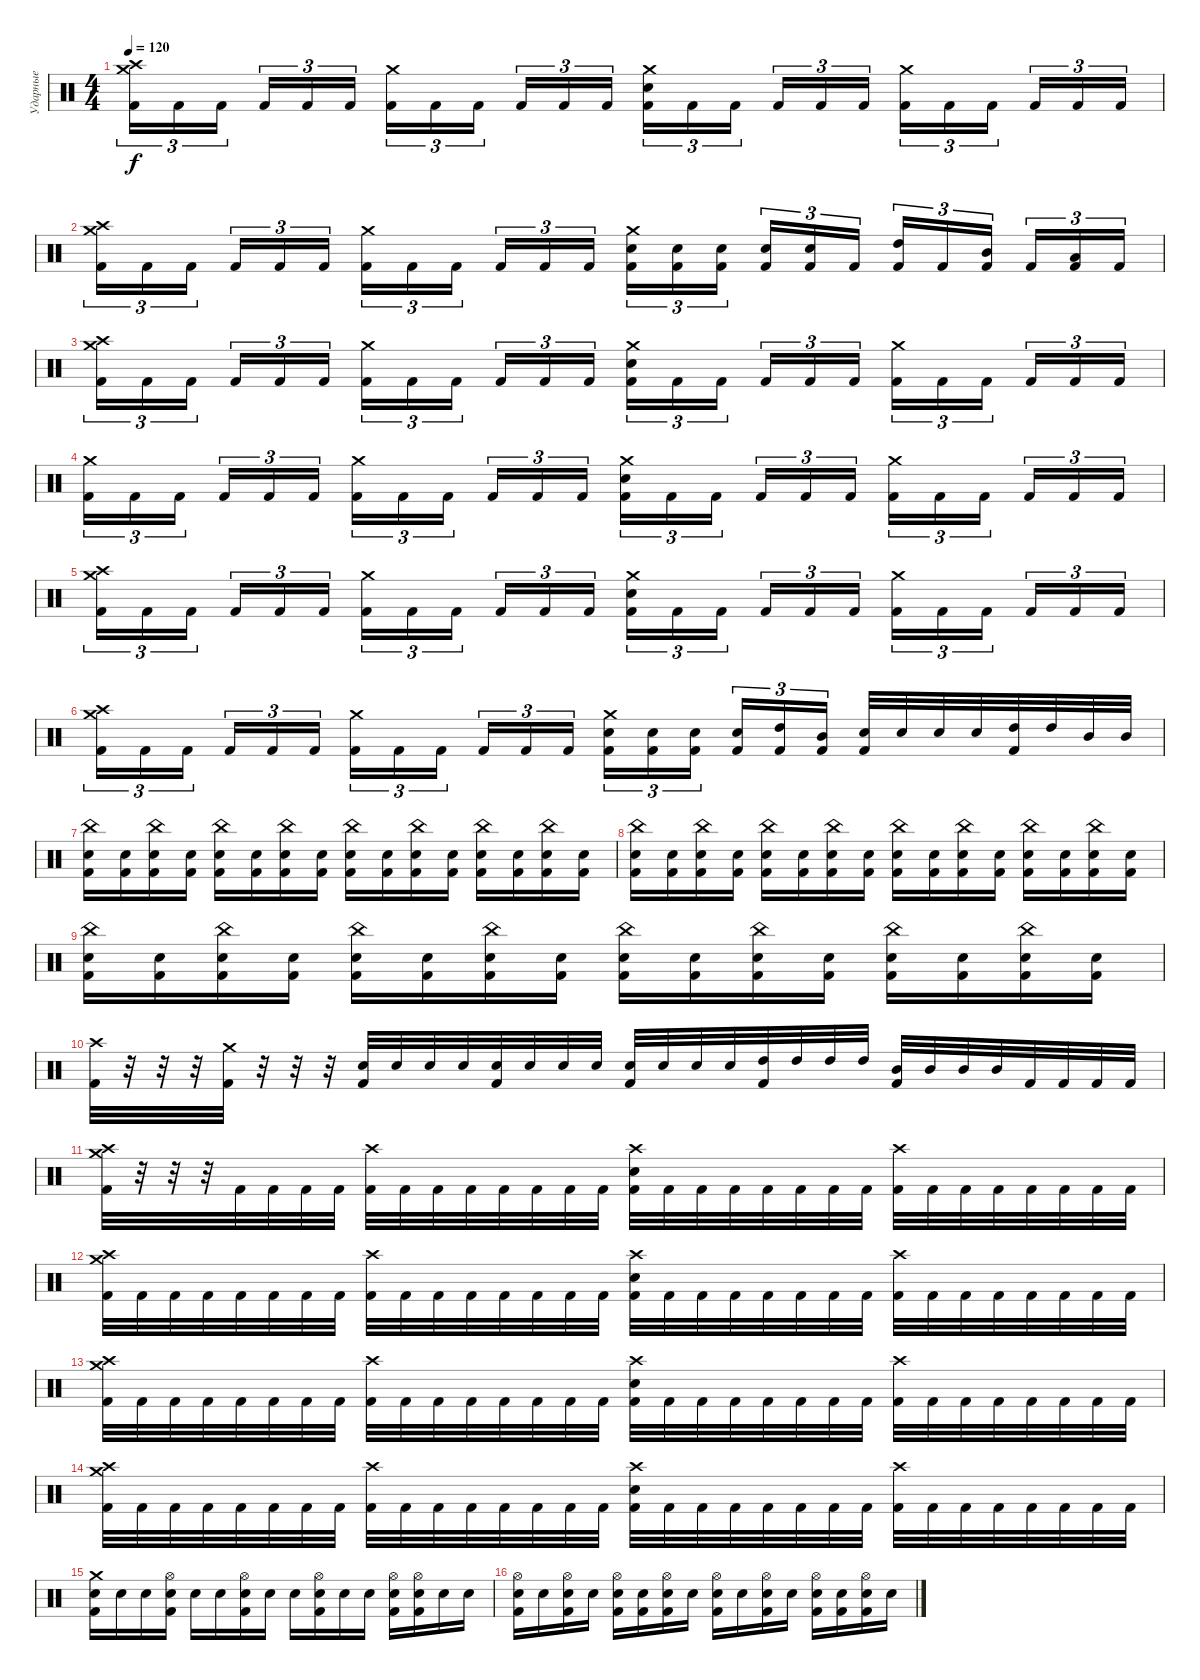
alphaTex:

\track ("Ударные" "Ударные") {instrument percussion}
\staff {score}
\articulation defaults
\ts (4 4)
\tempo 120
\clef neutral
\ks c
("Crash high (hit)" "Crash medium (hit)" "Kick (hit) 2").16{tu (3 2) dy f} "Kick (hit) 2".16{tu (3 2)} "Kick (hit) 2".16{tu (3 2) beam splitsecondary} "Kick (hit) 2".16{tu (3 2)} "Kick (hit) 2".16{tu (3 2)} "Kick (hit) 2".16{tu (3 2)} ("Crash medium (hit)" "Kick (hit) 2").16{tu (3 2)} "Kick (hit) 2".16{tu (3 2)} "Kick (hit) 2".16{tu (3 2) beam splitsecondary} "Kick (hit) 2".16{tu (3 2)} "Kick (hit) 2".16{tu (3 2)} "Kick (hit) 2".16{tu (3 2)} ("Electric Snare (hit)" "Crash medium (hit)" "Kick (hit) 2").16{tu (3 2)} "Kick (hit) 2".16{tu (3 2)} "Kick (hit) 2".16{tu (3 2) beam splitsecondary} "Kick (hit) 2".16{tu (3 2)} "Kick (hit) 2".16{tu (3 2)} "Kick (hit) 2".16{tu (3 2)} ("Crash medium (hit)" "Kick (hit) 2").16{tu (3 2)} "Kick (hit) 2".16{tu (3 2)} "Kick (hit) 2".16{tu (3 2) beam splitsecondary} "Kick (hit) 2".16{tu (3 2)} "Kick (hit) 2".16{tu (3 2)} "Kick (hit) 2".16{tu (3 2)} |
("Crash high (hit)" "Crash medium (hit)" "Kick (hit) 2").16{tu (3 2)} "Kick (hit) 2".16{tu (3 2)} "Kick (hit) 2".16{tu (3 2) beam splitsecondary} "Kick (hit) 2".16{tu (3 2)} "Kick (hit) 2".16{tu (3 2)} "Kick (hit) 2".16{tu (3 2)} ("Crash medium (hit)" "Kick (hit) 2").16{tu (3 2)} "Kick (hit) 2".16{tu (3 2)} "Kick (hit) 2".16{tu (3 2) beam splitsecondary} "Kick (hit) 2".16{tu (3 2)} "Kick (hit) 2".16{tu (3 2)} "Kick (hit) 2".16{tu (3 2)} ("Electric Snare (hit)" "Crash medium (hit)" "Kick (hit) 2").16{tu (3 2)} ("Electric Snare (hit)" "Kick (hit) 2").16{tu (3 2)} ("Electric Snare (hit)" "Kick (hit) 2").16{tu (3 2) beam splitsecondary} ("Electric Snare (hit)" "Kick (hit) 2").16{tu (3 2)} ("Electric Snare (hit)" "Kick (hit) 2").16{tu (3 2)} "Kick (hit) 2".16{tu (3 2)} ("High Tom (hit)" "Kick (hit) 2").16{tu (3 2)} "Kick (hit) 2".16{tu (3 2)} ("Mid Tom (hit)" "Kick (hit) 2").16{tu (3 2) beam splitsecondary} "Kick (hit) 2".16{tu (3 2)} ("Low Tom (hit)" "Kick (hit) 2").16{tu (3 2)} "Kick (hit) 2".16{tu (3 2)} |
("Crash high (hit)" "Crash medium (hit)" "Kick (hit) 2").16{tu (3 2)} "Kick (hit) 2".16{tu (3 2)} "Kick (hit) 2".16{tu (3 2) beam splitsecondary} "Kick (hit) 2".16{tu (3 2)} "Kick (hit) 2".16{tu (3 2)} "Kick (hit) 2".16{tu (3 2)} ("Crash medium (hit)" "Kick (hit) 2").16{tu (3 2)} "Kick (hit) 2".16{tu (3 2)} "Kick (hit) 2".16{tu (3 2) beam splitsecondary} "Kick (hit) 2".16{tu (3 2)} "Kick (hit) 2".16{tu (3 2)} "Kick (hit) 2".16{tu (3 2)} ("Electric Snare (hit)" "Crash medium (hit)" "Kick (hit) 2").16{tu (3 2)} "Kick (hit) 2".16{tu (3 2)} "Kick (hit) 2".16{tu (3 2) beam splitsecondary} "Kick (hit) 2".16{tu (3 2)} "Kick (hit) 2".16{tu (3 2)} "Kick (hit) 2".16{tu (3 2)} ("Crash medium (hit)" "Kick (hit) 2").16{tu (3 2)} "Kick (hit) 2".16{tu (3 2)} "Kick (hit) 2".16{tu (3 2) beam splitsecondary} "Kick (hit) 2".16{tu (3 2)} "Kick (hit) 2".16{tu (3 2)} "Kick (hit) 2".16{tu (3 2)} |
("Crash medium (hit)" "Kick (hit) 2").16{tu (3 2)} "Kick (hit) 2".16{tu (3 2)} "Kick (hit) 2".16{tu (3 2) beam splitsecondary} "Kick (hit) 2".16{tu (3 2)} "Kick (hit) 2".16{tu (3 2)} "Kick (hit) 2".16{tu (3 2)} ("Crash medium (hit)" "Kick (hit) 2").16{tu (3 2)} "Kick (hit) 2".16{tu (3 2)} "Kick (hit) 2".16{tu (3 2) beam splitsecondary} "Kick (hit) 2".16{tu (3 2)} "Kick (hit) 2".16{tu (3 2)} "Kick (hit) 2".16{tu (3 2)} ("Electric Snare (hit)" "Crash medium (hit)" "Kick (hit) 2").16{tu (3 2)} "Kick (hit) 2".16{tu (3 2)} "Kick (hit) 2".16{tu (3 2) beam splitsecondary} "Kick (hit) 2".16{tu (3 2)} "Kick (hit) 2".16{tu (3 2)} "Kick (hit) 2".16{tu (3 2)} ("Crash medium (hit)" "Kick (hit) 2").16{tu (3 2)} "Kick (hit) 2".16{tu (3 2)} "Kick (hit) 2".16{tu (3 2) beam splitsecondary} "Kick (hit) 2".16{tu (3 2)} "Kick (hit) 2".16{tu (3 2)} "Kick (hit) 2".16{tu (3 2)} |
("Crash high (hit)" "Crash medium (hit)" "Kick (hit) 2").16{tu (3 2)} "Kick (hit) 2".16{tu (3 2)} "Kick (hit) 2".16{tu (3 2) beam splitsecondary} "Kick (hit) 2".16{tu (3 2)} "Kick (hit) 2".16{tu (3 2)} "Kick (hit) 2".16{tu (3 2)} ("Crash medium (hit)" "Kick (hit) 2").16{tu (3 2)} "Kick (hit) 2".16{tu (3 2)} "Kick (hit) 2".16{tu (3 2) beam splitsecondary} "Kick (hit) 2".16{tu (3 2)} "Kick (hit) 2".16{tu (3 2)} "Kick (hit) 2".16{tu (3 2)} ("Electric Snare (hit)" "Crash medium (hit)" "Kick (hit) 2").16{tu (3 2)} "Kick (hit) 2".16{tu (3 2)} "Kick (hit) 2".16{tu (3 2) beam splitsecondary} "Kick (hit) 2".16{tu (3 2)} "Kick (hit) 2".16{tu (3 2)} "Kick (hit) 2".16{tu (3 2)} ("Crash medium (hit)" "Kick (hit) 2").16{tu (3 2)} "Kick (hit) 2".16{tu (3 2)} "Kick (hit) 2".16{tu (3 2) beam splitsecondary} "Kick (hit) 2".16{tu (3 2)} "Kick (hit) 2".16{tu (3 2)} "Kick (hit) 2".16{tu (3 2)} |
("Crash high (hit)" "Crash medium (hit)" "Kick (hit) 2").16{tu (3 2)} "Kick (hit) 2".16{tu (3 2)} "Kick (hit) 2".16{tu (3 2) beam splitsecondary} "Kick (hit) 2".16{tu (3 2)} "Kick (hit) 2".16{tu (3 2)} "Kick (hit) 2".16{tu (3 2)} ("Crash medium (hit)" "Kick (hit) 2").16{tu (3 2)} "Kick (hit) 2".16{tu (3 2)} "Kick (hit) 2".16{tu (3 2) beam splitsecondary} "Kick (hit) 2".16{tu (3 2)} "Kick (hit) 2".16{tu (3 2)} "Kick (hit) 2".16{tu (3 2)} ("Electric Snare (hit)" "Crash medium (hit)" "Kick (hit) 2").16{tu (3 2)} ("Electric Snare (hit)" "Kick (hit) 2").16{tu (3 2)} ("Electric Snare (hit)" "Kick (hit) 2").16{tu (3 2) beam splitsecondary} ("Electric Snare (hit)" "Kick (hit) 2").16{tu (3 2)} ("High Tom (hit)" "Kick (hit) 2").16{tu (3 2)} ("Mid Tom (hit)" "Kick (hit) 2").16{tu (3 2)} ("Electric Snare (hit)" "Kick (hit) 2").32 "Electric Snare (hit)".32 "Electric Snare (hit)".32 "Electric Snare (hit)".32 ("High Tom (hit)" "Kick (hit) 2").32 "High Tom (hit)".32 "Mid Tom (hit)".32 "Mid Tom (hit)".32 |
("China (hit)" "Electric Snare (hit)" "Kick (hit) 2").16 ("Electric Snare (hit)" "Kick (hit) 2").16 ("China (hit)" "Electric Snare (hit)" "Kick (hit) 2").16 ("Electric Snare (hit)" "Kick (hit) 2").16 ("China (hit)" "Electric Snare (hit)" "Kick (hit) 2").16 ("Electric Snare (hit)" "Kick (hit) 2").16 ("China (hit)" "Electric Snare (hit)" "Kick (hit) 2").16 ("Electric Snare (hit)" "Kick (hit) 2").16 ("China (hit)" "Electric Snare (hit)" "Kick (hit) 2").16 ("Electric Snare (hit)" "Kick (hit) 2").16 ("China (hit)" "Electric Snare (hit)" "Kick (hit) 2").16 ("Electric Snare (hit)" "Kick (hit) 2").16 ("China (hit)" "Electric Snare (hit)" "Kick (hit) 2").16 ("Electric Snare (hit)" "Kick (hit) 2").16 ("China (hit)" "Electric Snare (hit)" "Kick (hit) 2").16 ("Electric Snare (hit)" "Kick (hit) 2").16 |
("China (hit)" "Electric Snare (hit)" "Kick (hit) 2").16 ("Electric Snare (hit)" "Kick (hit) 2").16 ("China (hit)" "Electric Snare (hit)" "Kick (hit) 2").16 ("Electric Snare (hit)" "Kick (hit) 2").16 ("China (hit)" "Electric Snare (hit)" "Kick (hit) 2").16 ("Electric Snare (hit)" "Kick (hit) 2").16 ("China (hit)" "Electric Snare (hit)" "Kick (hit) 2").16 ("Electric Snare (hit)" "Kick (hit) 2").16 ("China (hit)" "Electric Snare (hit)" "Kick (hit) 2").16 ("Electric Snare (hit)" "Kick (hit) 2").16 ("China (hit)" "Electric Snare (hit)" "Kick (hit) 2").16 ("Electric Snare (hit)" "Kick (hit) 2").16 ("China (hit)" "Electric Snare (hit)" "Kick (hit) 2").16 ("Electric Snare (hit)" "Kick (hit) 2").16 ("China (hit)" "Electric Snare (hit)" "Kick (hit) 2").16 ("Electric Snare (hit)" "Kick (hit) 2").16 |
("China (hit)" "Electric Snare (hit)" "Kick (hit) 2").16 ("Electric Snare (hit)" "Kick (hit) 2").16 ("China (hit)" "Electric Snare (hit)" "Kick (hit) 2").16 ("Electric Snare (hit)" "Kick (hit) 2").16 ("China (hit)" "Electric Snare (hit)" "Kick (hit) 2").16 ("Electric Snare (hit)" "Kick (hit) 2").16 ("China (hit)" "Electric Snare (hit)" "Kick (hit) 2").16 ("Electric Snare (hit)" "Kick (hit) 2").16 ("China (hit)" "Electric Snare (hit)" "Kick (hit) 2").16 ("Electric Snare (hit)" "Kick (hit) 2").16 ("China (hit)" "Electric Snare (hit)" "Kick (hit) 2").16 ("Electric Snare (hit)" "Kick (hit) 2").16 ("China (hit)" "Electric Snare (hit)" "Kick (hit) 2").16 ("Electric Snare (hit)" "Kick (hit) 2").16 ("China (hit)" "Electric Snare (hit)" "Kick (hit) 2").16 ("Electric Snare (hit)" "Kick (hit) 2").16 |
("Crash high (hit)" "Kick (hit) 2").32 r.32 r.32 r.32 ("Crash medium (hit)" "Kick (hit) 2").32 r.32 r.32 r.32 ("Electric Snare (hit)" "Kick (hit) 2").32 "Electric Snare (hit)".32 "Electric Snare (hit)".32 "Electric Snare (hit)".32 ("Electric Snare (hit)" "Kick (hit) 2").32 "Electric Snare (hit)".32 "Electric Snare (hit)".32 "Electric Snare (hit)".32 ("Electric Snare (hit)" "Kick (hit) 2").32 "Electric Snare (hit)".32 "Electric Snare (hit)".32 "Electric Snare (hit)".32 ("High Tom (hit)" "Kick (hit) 2").32 "High Tom (hit)".32 "High Tom (hit)".32 "High Tom (hit)".32 ("Mid Tom (hit)" "Kick (hit) 2").32 "Mid Tom (hit)".32 "Mid Tom (hit)".32 "Mid Tom (hit)".32 "Kick (hit) 2".32 "Kick (hit) 2".32 "Kick (hit) 2".32 "Kick (hit) 2".32 |
("Crash high (hit)" "Crash medium (hit)" "Kick (hit) 2").32 r.32 r.32 r.32 "Kick (hit) 2".32 "Kick (hit) 2".32 "Kick (hit) 2".32 "Kick (hit) 2".32 ("Crash high (hit)" "Kick (hit) 2").32 "Kick (hit) 2".32 "Kick (hit) 2".32 "Kick (hit) 2".32 "Kick (hit) 2".32 "Kick (hit) 2".32 "Kick (hit) 2".32 "Kick (hit) 2".32 ("Crash high (hit)" "Electric Snare (hit)" "Kick (hit) 2").32 "Kick (hit) 2".32 "Kick (hit) 2".32 "Kick (hit) 2".32 "Kick (hit) 2".32 "Kick (hit) 2".32 "Kick (hit) 2".32 "Kick (hit) 2".32 ("Crash high (hit)" "Kick (hit) 2").32 "Kick (hit) 2".32 "Kick (hit) 2".32 "Kick (hit) 2".32 "Kick (hit) 2".32 "Kick (hit) 2".32 "Kick (hit) 2".32 "Kick (hit) 2".32 |
("Crash high (hit)" "Crash medium (hit)" "Kick (hit) 2").32 "Kick (hit) 2".32 "Kick (hit) 2".32 "Kick (hit) 2".32 "Kick (hit) 2".32 "Kick (hit) 2".32 "Kick (hit) 2".32 "Kick (hit) 2".32 ("Crash high (hit)" "Kick (hit) 2").32 "Kick (hit) 2".32 "Kick (hit) 2".32 "Kick (hit) 2".32 "Kick (hit) 2".32 "Kick (hit) 2".32 "Kick (hit) 2".32 "Kick (hit) 2".32 ("Crash high (hit)" "Electric Snare (hit)" "Kick (hit) 2").32 "Kick (hit) 2".32 "Kick (hit) 2".32 "Kick (hit) 2".32 "Kick (hit) 2".32 "Kick (hit) 2".32 "Kick (hit) 2".32 "Kick (hit) 2".32 ("Crash high (hit)" "Kick (hit) 2").32 "Kick (hit) 2".32 "Kick (hit) 2".32 "Kick (hit) 2".32 "Kick (hit) 2".32 "Kick (hit) 2".32 "Kick (hit) 2".32 "Kick (hit) 2".32 |
("Crash high (hit)" "Crash medium (hit)" "Kick (hit) 2").32 "Kick (hit) 2".32 "Kick (hit) 2".32 "Kick (hit) 2".32 "Kick (hit) 2".32 "Kick (hit) 2".32 "Kick (hit) 2".32 "Kick (hit) 2".32 ("Crash high (hit)" "Kick (hit) 2").32 "Kick (hit) 2".32 "Kick (hit) 2".32 "Kick (hit) 2".32 "Kick (hit) 2".32 "Kick (hit) 2".32 "Kick (hit) 2".32 "Kick (hit) 2".32 ("Crash high (hit)" "Electric Snare (hit)" "Kick (hit) 2").32 "Kick (hit) 2".32 "Kick (hit) 2".32 "Kick (hit) 2".32 "Kick (hit) 2".32 "Kick (hit) 2".32 "Kick (hit) 2".32 "Kick (hit) 2".32 ("Crash high (hit)" "Kick (hit) 2").32 "Kick (hit) 2".32 "Kick (hit) 2".32 "Kick (hit) 2".32 "Kick (hit) 2".32 "Kick (hit) 2".32 "Kick (hit) 2".32 "Kick (hit) 2".32 |
("Crash high (hit)" "Crash medium (hit)" "Kick (hit) 2").32 "Kick (hit) 2".32 "Kick (hit) 2".32 "Kick (hit) 2".32 "Kick (hit) 2".32 "Kick (hit) 2".32 "Kick (hit) 2".32 "Kick (hit) 2".32 ("Crash high (hit)" "Kick (hit) 2").32 "Kick (hit) 2".32 "Kick (hit) 2".32 "Kick (hit) 2".32 "Kick (hit) 2".32 "Kick (hit) 2".32 "Kick (hit) 2".32 "Kick (hit) 2".32 ("Crash high (hit)" "Electric Snare (hit)" "Kick (hit) 2").32 "Kick (hit) 2".32 "Kick (hit) 2".32 "Kick (hit) 2".32 "Kick (hit) 2".32 "Kick (hit) 2".32 "Kick (hit) 2".32 "Kick (hit) 2".32 ("Crash high (hit)" "Kick (hit) 2").32 "Kick (hit) 2".32 "Kick (hit) 2".32 "Kick (hit) 2".32 "Kick (hit) 2".32 "Kick (hit) 2".32 "Kick (hit) 2".32 "Kick (hit) 2".32 |
("Electric Snare (hit)" "Crash medium (hit)" "Kick (hit) 2").16 "Electric Snare (hit)".16 "Electric Snare (hit)".16 ("Electric Snare (hit)" "Hi-Hat (open)" "Kick (hit) 2").16 "Electric Snare (hit)".16 "Electric Snare (hit)".16 ("Electric Snare (hit)" "Hi-Hat (open)" "Kick (hit) 2").16 "Electric Snare (hit)".16 "Electric Snare (hit)".16 ("Electric Snare (hit)" "Hi-Hat (open)" "Kick (hit) 2").16 "Electric Snare (hit)".16 "Electric Snare (hit)".16 ("Electric Snare (hit)" "Hi-Hat (open)" "Kick (hit) 2").16 ("Electric Snare (hit)" "Hi-Hat (open)" "Kick (hit) 2").16 "Electric Snare (hit)".16 "Electric Snare (hit)".16 |
("Electric Snare (hit)" "Hi-Hat (open)" "Kick (hit) 2").16 "Electric Snare (hit)".16 ("Electric Snare (hit)" "Hi-Hat (open)" "Kick (hit) 2").16 "Electric Snare (hit)".16 ("Electric Snare (hit)" "Hi-Hat (open)" "Kick (hit) 2").16 ("Electric Snare (hit)" "Kick (hit) 2").16 ("Electric Snare (hit)" "Hi-Hat (open)" "Kick (hit) 2").16 "Electric Snare (hit)".16 ("Electric Snare (hit)" "Hi-Hat (open)" "Kick (hit) 2").16 "Electric Snare (hit)".16 ("Electric Snare (hit)" "Hi-Hat (open)" "Kick (hit) 2").16 "Electric Snare (hit)".16 ("Electric Snare (hit)" "Hi-Hat (open)" "Kick (hit) 2").16 ("Electric Snare (hit)" "Kick (hit) 2").16 ("Electric Snare (hit)" "Hi-Hat (open)" "Kick (hit) 2").16 "Electric Snare (hit)".16
